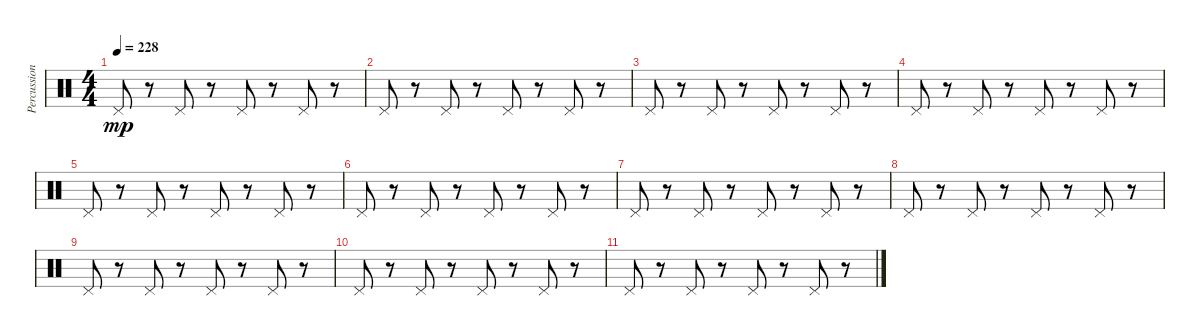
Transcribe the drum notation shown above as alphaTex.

\track ("Percussions" "Percussion") {instrument percussion}
\staff {score}
\articulation defaults
\ts (4 4)
\tempo 228
\clef neutral
\ks c "Pedal Hi-Hat (hit)".8{dy mp}
r.8 "Pedal Hi-Hat (hit)".8 r.8 "Pedal Hi-Hat (hit)".8 r.8 "Pedal Hi-Hat (hit)".8 r.8 |
"Pedal Hi-Hat (hit)".8 r.8 "Pedal Hi-Hat (hit)".8 r.8 "Pedal Hi-Hat (hit)".8 r.8 "Pedal Hi-Hat (hit)".8 r.8 |
"Pedal Hi-Hat (hit)".8 r.8 "Pedal Hi-Hat (hit)".8 r.8 "Pedal Hi-Hat (hit)".8 r.8 "Pedal Hi-Hat (hit)".8 r.8 |
"Pedal Hi-Hat (hit)".8 r.8 "Pedal Hi-Hat (hit)".8 r.8 "Pedal Hi-Hat (hit)".8 r.8 "Pedal Hi-Hat (hit)".8 r.8 |
"Pedal Hi-Hat (hit)".8 r.8 "Pedal Hi-Hat (hit)".8 r.8 "Pedal Hi-Hat (hit)".8 r.8 "Pedal Hi-Hat (hit)".8 r.8 |
"Pedal Hi-Hat (hit)".8 r.8 "Pedal Hi-Hat (hit)".8 r.8 "Pedal Hi-Hat (hit)".8 r.8 "Pedal Hi-Hat (hit)".8 r.8 |
"Pedal Hi-Hat (hit)".8 r.8 "Pedal Hi-Hat (hit)".8 r.8 "Pedal Hi-Hat (hit)".8 r.8 "Pedal Hi-Hat (hit)".8 r.8 |
"Pedal Hi-Hat (hit)".8 r.8 "Pedal Hi-Hat (hit)".8 r.8 "Pedal Hi-Hat (hit)".8 r.8 "Pedal Hi-Hat (hit)".8 r.8 |
"Pedal Hi-Hat (hit)".8 r.8 "Pedal Hi-Hat (hit)".8 r.8 "Pedal Hi-Hat (hit)".8 r.8 "Pedal Hi-Hat (hit)".8 r.8 |
"Pedal Hi-Hat (hit)".8 r.8 "Pedal Hi-Hat (hit)".8 r.8 "Pedal Hi-Hat (hit)".8 r.8 "Pedal Hi-Hat (hit)".8 r.8 |
"Pedal Hi-Hat (hit)".8 r.8 "Pedal Hi-Hat (hit)".8 r.8 "Pedal Hi-Hat (hit)".8 r.8 "Pedal Hi-Hat (hit)".8 r.8
